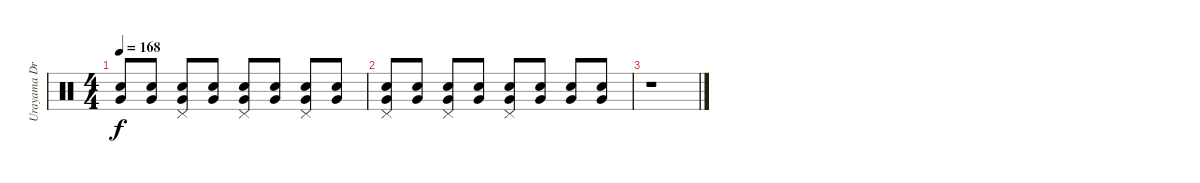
\track ("Urayama Drums" "Urayama Dr") {instrument percussion}
\staff {score}
\articulation defaults
\ts (4 4)
\tempo 168
\clef neutral
\ks c
("Electric Snare (hit)" "Very Low Tom (hit)").8{dy f} ("Electric Snare (hit)" "Very Low Tom (hit)").8 ("Electric Snare (hit)" "Very Low Tom (hit)" "Pedal Hi-Hat (hit)").8 ("Electric Snare (hit)" "Very Low Tom (hit)").8 ("Electric Snare (hit)" "Very Low Tom (hit)" "Pedal Hi-Hat (hit)").8 ("Electric Snare (hit)" "Very Low Tom (hit)").8 ("Electric Snare (hit)" "Very Low Tom (hit)" "Pedal Hi-Hat (hit)").8 ("Electric Snare (hit)" "Very Low Tom (hit)").8 |
("Electric Snare (hit)" "Very Low Tom (hit)" "Pedal Hi-Hat (hit)").8 ("Electric Snare (hit)" "Very Low Tom (hit)").8 ("Electric Snare (hit)" "Very Low Tom (hit)" "Pedal Hi-Hat (hit)").8 ("Electric Snare (hit)" "Very Low Tom (hit)").8 ("Electric Snare (hit)" "Very Low Tom (hit)" "Pedal Hi-Hat (hit)").8 ("Electric Snare (hit)" "Very Low Tom (hit)").8 ("Electric Snare (hit)" "Very Low Tom (hit)").8 ("Electric Snare (hit)" "Very Low Tom (hit)").8 |
r.1
